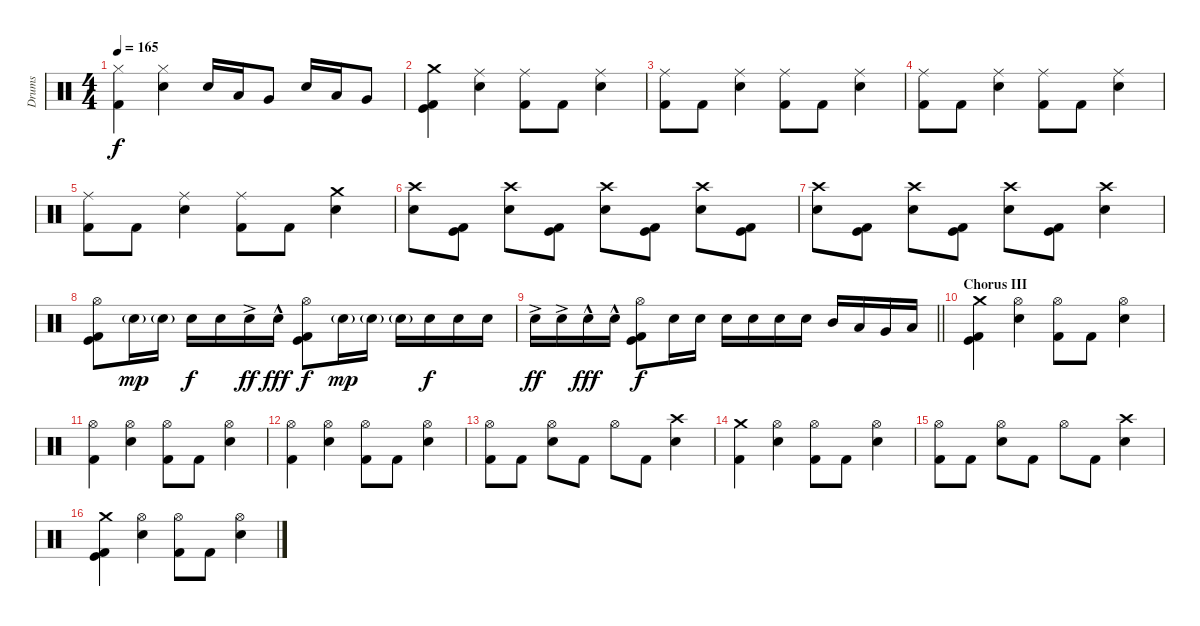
\track ("Drums" "Drums") {instrument percussion}
\staff {score}
\articulation defaults
\ts (4 4)
\tempo 165
\clef neutral
\ks c
("Hi-Hat (closed)" "Kick (hit) 2").4{dy f} ("Hi-Hat (closed)" "Electric Snare (hit)").4 "Electric Snare (hit)".16 "Low Tom (hit)".16 "Very Low Tom (hit)".8 "Electric Snare (hit)".16 "Low Tom (hit)".16 "Very Low Tom (hit)".8 |
("Kick (hit)" "Kick (hit) 2" "Crash medium (hit)").4 ("Ride (middle)" "Electric Snare (hit)").4 ("Ride (middle)" "Kick (hit) 2").8 "Kick (hit) 2".8 ("Ride (middle)" "Electric Snare (hit)").4 |
("Ride (middle)" "Kick (hit) 2").8 "Kick (hit) 2".8 ("Ride (middle)" "Electric Snare (hit)").4 ("Ride (middle)" "Kick (hit) 2").8 "Kick (hit) 2".8 ("Ride (middle)" "Electric Snare (hit)").4 |
("Ride (middle)" "Kick (hit) 2").8 "Kick (hit) 2".8 ("Ride (middle)" "Electric Snare (hit)").4 ("Ride (middle)" "Kick (hit) 2").8 "Kick (hit) 2".8 ("Ride (middle)" "Electric Snare (hit)").4 |
("Ride (middle)" "Kick (hit) 2").8 "Kick (hit) 2".8 ("Ride (middle)" "Electric Snare (hit)").4 ("Ride (middle)" "Kick (hit) 2").8 "Kick (hit) 2".8 ("Crash medium (hit)" "Electric Snare (hit)").4 |
("Crash high (hit)" "Electric Snare (hit)").8 ("Kick (hit) 2" "Kick (hit)").8 ("Crash high (hit)" "Electric Snare (hit)").8 ("Kick (hit) 2" "Kick (hit)").8 ("Crash high (hit)" "Electric Snare (hit)").8 ("Kick (hit) 2" "Kick (hit)").8 ("Crash high (hit)" "Electric Snare (hit)").8 ("Kick (hit) 2" "Kick (hit)").8 |
("Crash high (hit)" "Electric Snare (hit)").8 ("Kick (hit) 2" "Kick (hit)").8 ("Crash high (hit)" "Electric Snare (hit)").8 ("Kick (hit) 2" "Kick (hit)").8 ("Crash high (hit)" "Electric Snare (hit)").8 ("Kick (hit) 2" "Kick (hit)").8 ("Crash high (hit)" "Electric Snare (hit)").4 |
("Hi-Hat (open)" "Kick (hit) 2" "Kick (hit)").8 "Electric Snare (hit)"{g}.16{dy mp} "Electric Snare (hit)"{g}.16 "Electric Snare (hit)".16{dy f} "Electric Snare (hit)".16 "Electric Snare (hit)"{ac}.16{dy ff} "Electric Snare (hit)"{hac}.16{dy fff} ("Hi-Hat (open)" "Kick (hit) 2" "Kick (hit)").8{dy f} "Electric Snare (hit)"{g}.16{dy mp} "Electric Snare (hit)"{g}.16 "Electric Snare (hit)"{g}.16 "Electric Snare (hit)".16{dy f} "Electric Snare (hit)".16 "Electric Snare (hit)".16 |
\barLineRight lightlight "Electric Snare (hit)"{ac}.16{dy ff} "Electric Snare (hit)"{ac}.16 "Electric Snare (hit)"{hac}.16{dy fff} "Electric Snare (hit)"{hac}.16
("Hi-Hat (open)" "Kick (hit) 2" "Kick (hit)").8{dy f} "Electric Snare (hit)".16 "Electric Snare (hit)".16 "Electric Snare (hit)".16 "Electric Snare (hit)".16 "Electric Snare (hit)".16 "Electric Snare (hit)".16 "Mid Tom (hit)".16 "Low Tom (hit)".16 "Very Low Tom (hit)".16 "Low Floor Tom (hit)".16 |
\section ("" "Chorus III")
("Kick (hit)" "Kick (hit) 2" "Crash medium (hit)").4 ("Hi-Hat (open)" "Electric Snare (hit)").4 ("Hi-Hat (open)" "Kick (hit) 2").8 "Kick (hit) 2".8 ("Hi-Hat (open)" "Electric Snare (hit)").4 |
("Hi-Hat (open)" "Kick (hit) 2").4 ("Hi-Hat (open)" "Electric Snare (hit)").4 ("Hi-Hat (open)" "Kick (hit) 2").8 "Kick (hit) 2".8 ("Hi-Hat (open)" "Electric Snare (hit)").4 |
("Hi-Hat (open)" "Kick (hit) 2").4 ("Hi-Hat (open)" "Electric Snare (hit)").4 ("Hi-Hat (open)" "Kick (hit) 2").8 "Kick (hit) 2".8 ("Hi-Hat (open)" "Electric Snare (hit)").4 |
("Hi-Hat (open)" "Kick (hit) 2").8 "Kick (hit) 2".8 ("Hi-Hat (open)" "Electric Snare (hit)").8 "Kick (hit) 2".8 "Hi-Hat (open)".8 "Kick (hit) 2".8 ("Crash high (hit)" "Electric Snare (hit)").4 |
("Crash medium (hit)" "Kick (hit) 2").4 ("Hi-Hat (open)" "Electric Snare (hit)").4 ("Hi-Hat (open)" "Kick (hit) 2").8 "Kick (hit) 2".8 ("Hi-Hat (open)" "Electric Snare (hit)").4 |
("Hi-Hat (open)" "Kick (hit) 2").8 "Kick (hit) 2".8 ("Hi-Hat (open)" "Electric Snare (hit)").8 "Kick (hit) 2".8 "Hi-Hat (open)".8 "Kick (hit) 2".8 ("Crash high (hit)" "Electric Snare (hit)").4 |
("Crash medium (hit)" "Kick (hit) 2" "Kick (hit)").4 ("Hi-Hat (open)" "Electric Snare (hit)").4 ("Hi-Hat (open)" "Kick (hit) 2").8 "Kick (hit) 2".8 ("Hi-Hat (open)" "Electric Snare (hit)").4
